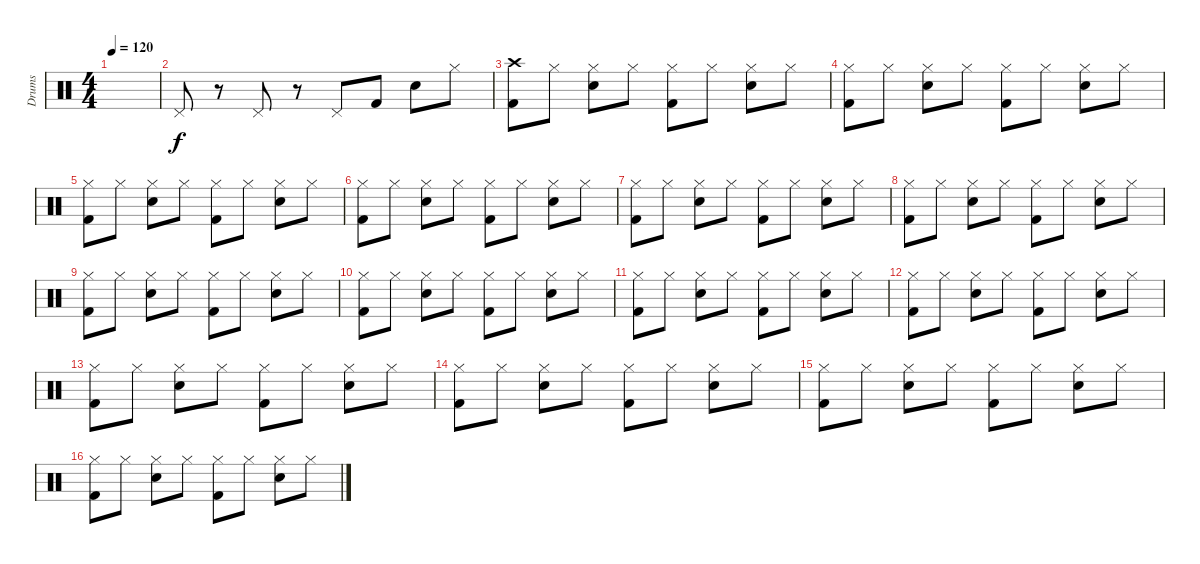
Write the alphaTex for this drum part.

\track ("Drums" "Drums") {instrument percussion}
\staff {score}
\articulation defaults
\ts (4 4)
\tempo 120
\clef neutral
\ks c
|
"Pedal Hi-Hat (hit)".8 r.8 "Pedal Hi-Hat (hit)".8 r.8 "Pedal Hi-Hat (hit)".8 "Kick (hit) 2".8 "Snare (hit) 2".8 "Hi-Hat (closed)".8 |
("Crash high (hit)" "Kick (hit) 2").8 "Hi-Hat (closed)".8 ("Hi-Hat (closed)" "Snare (hit) 2").8 "Hi-Hat (closed)".8 ("Hi-Hat (closed)" "Kick (hit) 2").8 "Hi-Hat (closed)".8 ("Hi-Hat (closed)" "Snare (hit) 2").8 "Hi-Hat (closed)".8 |
("Hi-Hat (closed)" "Kick (hit) 2").8 "Hi-Hat (closed)".8 ("Hi-Hat (closed)" "Snare (hit) 2").8 "Hi-Hat (closed)".8 ("Hi-Hat (closed)" "Kick (hit) 2").8 "Hi-Hat (closed)".8 ("Hi-Hat (closed)" "Snare (hit) 2").8 "Hi-Hat (closed)".8 |
("Hi-Hat (closed)" "Kick (hit) 2").8 "Hi-Hat (closed)".8 ("Hi-Hat (closed)" "Snare (hit) 2").8 "Hi-Hat (closed)".8 ("Hi-Hat (closed)" "Kick (hit) 2").8 "Hi-Hat (closed)".8 ("Hi-Hat (closed)" "Snare (hit) 2").8 "Hi-Hat (closed)".8 |
("Hi-Hat (closed)" "Kick (hit) 2").8 "Hi-Hat (closed)".8 ("Hi-Hat (closed)" "Snare (hit) 2").8 "Hi-Hat (closed)".8 ("Hi-Hat (closed)" "Kick (hit) 2").8 "Hi-Hat (closed)".8 ("Hi-Hat (closed)" "Snare (hit) 2").8 "Hi-Hat (closed)".8 |
("Hi-Hat (closed)" "Kick (hit) 2").8 "Hi-Hat (closed)".8 ("Hi-Hat (closed)" "Snare (hit) 2").8 "Hi-Hat (closed)".8 ("Hi-Hat (closed)" "Kick (hit) 2").8 "Hi-Hat (closed)".8 ("Hi-Hat (closed)" "Snare (hit) 2").8 "Hi-Hat (closed)".8 |
("Hi-Hat (closed)" "Kick (hit) 2").8 "Hi-Hat (closed)".8 ("Hi-Hat (closed)" "Snare (hit) 2").8 "Hi-Hat (closed)".8 ("Hi-Hat (closed)" "Kick (hit) 2").8 "Hi-Hat (closed)".8 ("Hi-Hat (closed)" "Snare (hit) 2").8 "Hi-Hat (closed)".8 |
("Hi-Hat (closed)" "Kick (hit) 2").8 "Hi-Hat (closed)".8 ("Hi-Hat (closed)" "Snare (hit) 2").8 "Hi-Hat (closed)".8 ("Hi-Hat (closed)" "Kick (hit) 2").8 "Hi-Hat (closed)".8 ("Hi-Hat (closed)" "Snare (hit) 2").8 "Hi-Hat (closed)".8 |
("Hi-Hat (closed)" "Kick (hit) 2").8 "Hi-Hat (closed)".8 ("Hi-Hat (closed)" "Snare (hit) 2").8 "Hi-Hat (closed)".8 ("Hi-Hat (closed)" "Kick (hit) 2").8 "Hi-Hat (closed)".8 ("Hi-Hat (closed)" "Snare (hit) 2").8 "Hi-Hat (closed)".8 |
("Hi-Hat (closed)" "Kick (hit) 2").8 "Hi-Hat (closed)".8 ("Hi-Hat (closed)" "Snare (hit) 2").8 "Hi-Hat (closed)".8 ("Hi-Hat (closed)" "Kick (hit) 2").8 "Hi-Hat (closed)".8 ("Hi-Hat (closed)" "Snare (hit) 2").8 "Hi-Hat (closed)".8 |
("Hi-Hat (closed)" "Kick (hit) 2").8 "Hi-Hat (closed)".8 ("Hi-Hat (closed)" "Snare (hit) 2").8 "Hi-Hat (closed)".8 ("Hi-Hat (closed)" "Kick (hit) 2").8 "Hi-Hat (closed)".8 ("Hi-Hat (closed)" "Snare (hit) 2").8 "Hi-Hat (closed)".8 |
("Hi-Hat (closed)" "Kick (hit) 2").8 "Hi-Hat (closed)".8 ("Hi-Hat (closed)" "Snare (hit) 2").8 "Hi-Hat (closed)".8 ("Hi-Hat (closed)" "Kick (hit) 2").8 "Hi-Hat (closed)".8 ("Hi-Hat (closed)" "Snare (hit) 2").8 "Hi-Hat (closed)".8 |
("Hi-Hat (closed)" "Kick (hit) 2").8 "Hi-Hat (closed)".8 ("Hi-Hat (closed)" "Snare (hit) 2").8 "Hi-Hat (closed)".8 ("Hi-Hat (closed)" "Kick (hit) 2").8 "Hi-Hat (closed)".8 ("Hi-Hat (closed)" "Snare (hit) 2").8 "Hi-Hat (closed)".8 |
("Hi-Hat (closed)" "Kick (hit) 2").8 "Hi-Hat (closed)".8 ("Hi-Hat (closed)" "Snare (hit) 2").8 "Hi-Hat (closed)".8 ("Hi-Hat (closed)" "Kick (hit) 2").8 "Hi-Hat (closed)".8 ("Hi-Hat (closed)" "Snare (hit) 2").8 "Hi-Hat (closed)".8 |
("Hi-Hat (closed)" "Kick (hit) 2").8 "Hi-Hat (closed)".8 ("Hi-Hat (closed)" "Snare (hit) 2").8 "Hi-Hat (closed)".8 ("Hi-Hat (closed)" "Kick (hit) 2").8 "Hi-Hat (closed)".8 ("Hi-Hat (closed)" "Snare (hit) 2").8 "Hi-Hat (closed)".8
